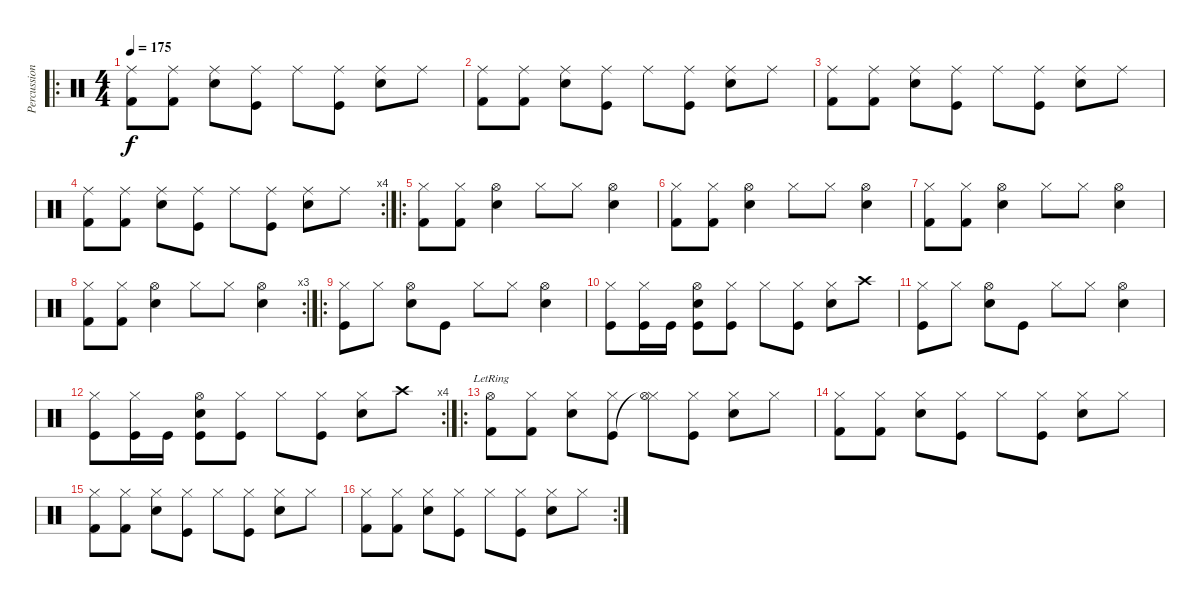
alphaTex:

\track ("Percussions" "Percussion") {instrument percussion}
\staff {score}
\articulation defaults
\ro
\ts (4 4)
\tempo 175
\clef neutral
\ks c
("Ride (middle)" "Kick (hit) 2").8{dy f} ("Ride (middle)" "Kick (hit) 2").8 ("Ride (middle)" "Snare (hit) 2").8 ("Ride (middle)" "Kick (hit)").8 "Ride (middle)".8 ("Ride (middle)" "Kick (hit)").8 ("Ride (middle)" "Snare (hit) 2").8 "Ride (middle)".8 |
("Ride (middle)" "Kick (hit) 2").8 ("Ride (middle)" "Kick (hit) 2").8 ("Ride (middle)" "Snare (hit) 2").8 ("Ride (middle)" "Kick (hit)").8 "Ride (middle)".8 ("Ride (middle)" "Kick (hit)").8 ("Ride (middle)" "Snare (hit) 2").8 "Ride (middle)".8 |
("Ride (middle)" "Kick (hit) 2").8 ("Ride (middle)" "Kick (hit) 2").8 ("Ride (middle)" "Snare (hit) 2").8 ("Ride (middle)" "Kick (hit)").8 "Ride (middle)".8 ("Ride (middle)" "Kick (hit)").8 ("Ride (middle)" "Snare (hit) 2").8 "Ride (middle)".8 |
\rc 4
("Ride (middle)" "Kick (hit) 2").8 ("Ride (middle)" "Kick (hit) 2").8 ("Ride (middle)" "Snare (hit) 2").8 ("Ride (middle)" "Kick (hit)").8 "Ride (middle)".8 ("Ride (middle)" "Kick (hit)").8 ("Ride (middle)" "Snare (hit) 2").8 "Ride (middle)".8 |
\ro
("Hi-Hat (closed)" "Kick (hit) 2").8 ("Hi-Hat (closed)" "Kick (hit) 2").8 ("Hi-Hat (open)" "Snare (hit) 2").4 "Hi-Hat (closed)".8 "Hi-Hat (closed)".8 ("Hi-Hat (open)" "Snare (hit) 2").4 |
("Hi-Hat (closed)" "Kick (hit) 2").8 ("Hi-Hat (closed)" "Kick (hit) 2").8 ("Hi-Hat (open)" "Snare (hit) 2").4 "Hi-Hat (closed)".8 "Hi-Hat (closed)".8 ("Hi-Hat (open)" "Snare (hit) 2").4 |
("Hi-Hat (closed)" "Kick (hit) 2").8 ("Hi-Hat (closed)" "Kick (hit) 2").8 ("Hi-Hat (open)" "Snare (hit) 2").4 "Hi-Hat (closed)".8 "Hi-Hat (closed)".8 ("Hi-Hat (open)" "Snare (hit) 2").4 |
\rc 3
("Hi-Hat (closed)" "Kick (hit) 2").8 ("Hi-Hat (closed)" "Kick (hit) 2").8 ("Hi-Hat (open)" "Snare (hit) 2").4 "Hi-Hat (closed)".8 "Hi-Hat (closed)".8 ("Hi-Hat (open)" "Snare (hit) 2").4 |
\ro
("Hi-Hat (closed)" "Kick (hit)").8 "Hi-Hat (closed)".8 ("Hi-Hat (open)" "Snare (hit) 2").8 "Kick (hit)".8 "Hi-Hat (closed)".8 "Hi-Hat (closed)".8 ("Hi-Hat (open)" "Snare (hit) 2").4 |
("Hi-Hat (closed)" "Kick (hit)").8 ("Hi-Hat (closed)" "Kick (hit)").16 "Kick (hit)".16 ("Hi-Hat (open)" "Snare (hit) 2" "Kick (hit)").8 ("Hi-Hat (closed)" "Kick (hit)").8 "Hi-Hat (closed)".8 ("Hi-Hat (closed)" "Kick (hit)").8 ("Hi-Hat (closed)" "Snare (hit) 2").8 "Crash high (hit)".8 |
("Hi-Hat (closed)" "Kick (hit)").8 "Hi-Hat (closed)".8 ("Hi-Hat (open)" "Snare (hit) 2").8 "Kick (hit)".8 "Hi-Hat (closed)".8 "Hi-Hat (closed)".8 ("Hi-Hat (open)" "Snare (hit) 2").4 |
\rc 4
("Hi-Hat (closed)" "Kick (hit)").8 ("Hi-Hat (closed)" "Kick (hit)").16 "Kick (hit)".16 ("Hi-Hat (open)" "Snare (hit) 2" "Kick (hit)").8 ("Hi-Hat (closed)" "Kick (hit)").8 "Hi-Hat (closed)".8 ("Hi-Hat (closed)" "Kick (hit)").8 ("Hi-Hat (closed)" "Snare (hit) 2").8 "Crash high (hit)".8 |
\ro
("Hi-Hat (open)"{lr} "Kick (hit) 2").8 ("Hi-Hat (closed)" "Kick (hit) 2").8 ("Hi-Hat (closed)" "Snare (hit) 2").8 ("Hi-Hat (closed)" "Kick (hit)").8 ("Hi-Hat (closed)" "Hi-Hat (open)"{t}).8 ("Hi-Hat (closed)" "Kick (hit)").8 ("Hi-Hat (closed)" "Snare (hit) 2").8 "Hi-Hat (closed)".8 |
("Hi-Hat (closed)" "Kick (hit) 2").8 ("Hi-Hat (closed)" "Kick (hit) 2").8 ("Hi-Hat (closed)" "Snare (hit) 2").8 ("Hi-Hat (closed)" "Kick (hit)").8 "Hi-Hat (closed)".8 ("Hi-Hat (closed)" "Kick (hit)").8 ("Hi-Hat (closed)" "Snare (hit) 2").8 "Hi-Hat (closed)".8 |
("Hi-Hat (closed)" "Kick (hit) 2").8 ("Hi-Hat (closed)" "Kick (hit) 2").8 ("Hi-Hat (closed)" "Snare (hit) 2").8 ("Hi-Hat (closed)" "Kick (hit)").8 "Hi-Hat (closed)".8 ("Hi-Hat (closed)" "Kick (hit)").8 ("Hi-Hat (closed)" "Snare (hit) 2").8 "Hi-Hat (closed)".8 |
\rc 2
("Hi-Hat (closed)" "Kick (hit) 2").8 ("Hi-Hat (closed)" "Kick (hit) 2").8 ("Hi-Hat (closed)" "Snare (hit) 2").8 ("Hi-Hat (closed)" "Kick (hit)").8 "Hi-Hat (closed)".8 ("Hi-Hat (closed)" "Kick (hit)").8 ("Hi-Hat (closed)" "Snare (hit) 2").8 "Hi-Hat (closed)".8
